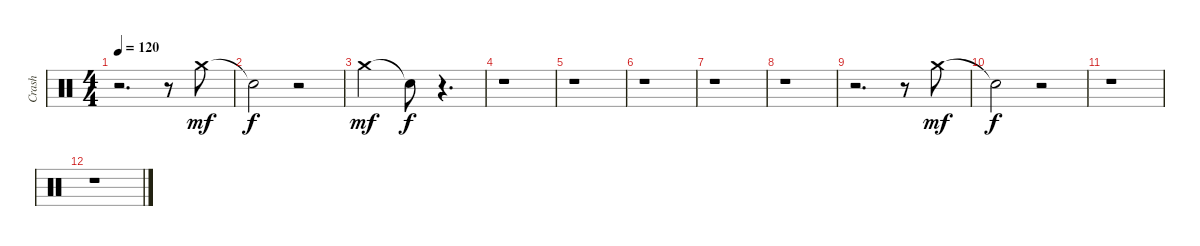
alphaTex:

\track ("Crash" "Crash") {instrument percussion}
\staff {score}
\articulation defaults
\ts (4 4)
\tempo 120
\clef neutral
\ks c
r.2{d dy f} r.8 "Crash medium (hit)".8{dy mf} |
"Snare (hit)"{t}.2{dy f} r.2 |
"Crash medium (hit)".2{dy mf} "Snare (hit)"{t}.8{dy f} r.4{d} |
r.1 |
r.1 |
r.1 |
r.1 |
r.1 |
r.2{d} r.8 "Crash medium (hit)".8{dy mf} |
"Snare (hit)"{t}.2{dy f} r.2 |
r.1 |
r.1
